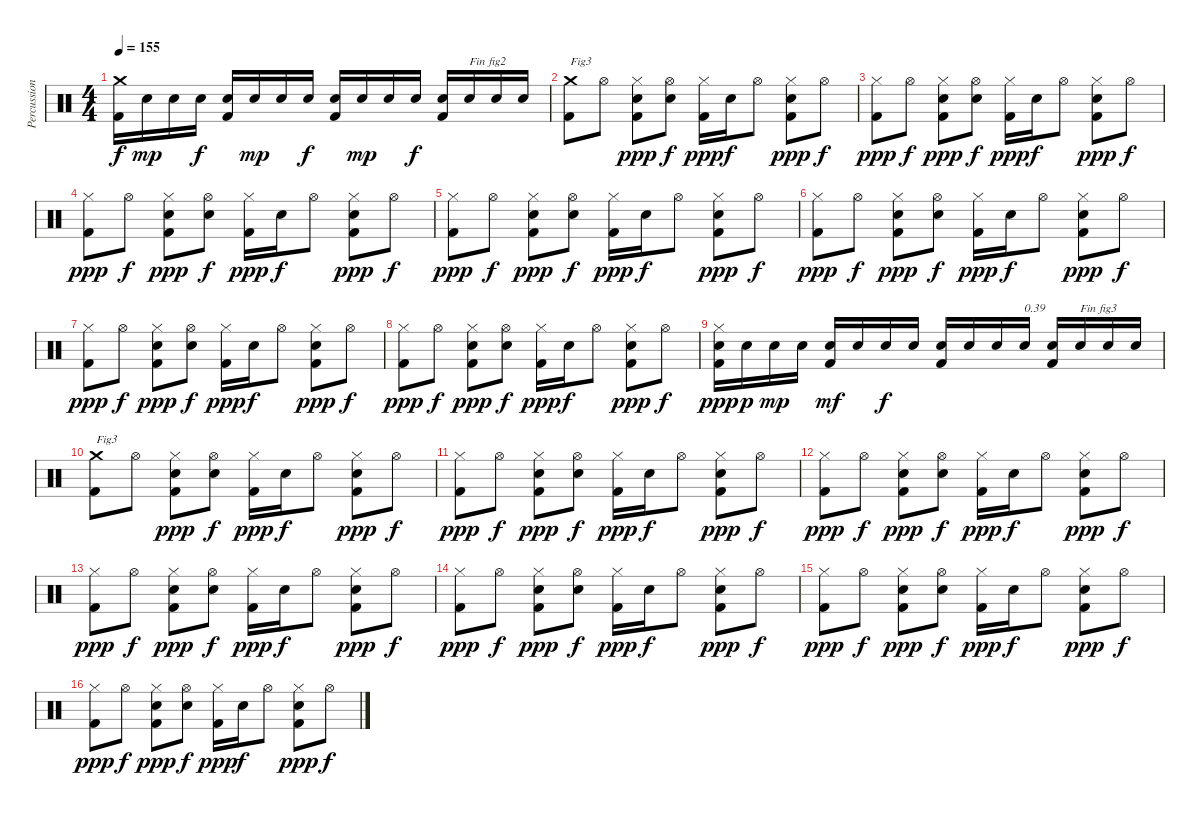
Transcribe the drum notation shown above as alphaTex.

\track ("Percussions" "Percussion") {instrument percussion}
\staff {score}
\articulation defaults
\ts (4 4)
\tempo 155
\clef neutral
\ks c
("Kick (hit) 2" "Crash medium (hit)").16{dy f} "Electric Snare (hit)".16{dy mp} "Electric Snare (hit)".16 "Electric Snare (hit)".16{dy f} ("Kick (hit) 2" "Electric Snare (hit)").16 "Electric Snare (hit)".16{dy mp} "Electric Snare (hit)".16 "Electric Snare (hit)".16{dy f} ("Kick (hit) 2" "Electric Snare (hit)").16 "Electric Snare (hit)".16{dy mp} "Electric Snare (hit)".16 "Electric Snare (hit)".16{dy f} ("Kick (hit) 2" "Electric Snare (hit)").16 "Electric Snare (hit)".16{txt "Fin fig2"} "Electric Snare (hit)".16 "Electric Snare (hit)".16 |
("Kick (hit) 2" "Crash medium (hit)").8{txt "Fig3"} "Hi-Hat (open)".8 ("Kick (hit) 2" "Electric Snare (hit)" "Hi-Hat (closed)").8{dy ppp} ("Electric Snare (hit)" "Hi-Hat (open)").8{dy f} ("Kick (hit) 2" "Hi-Hat (closed)").16{dy ppp} "Electric Snare (hit)".16{dy f} "Hi-Hat (open)".8 ("Kick (hit) 2" "Electric Snare (hit)" "Hi-Hat (closed)").8{dy ppp} "Hi-Hat (open)".8{dy f} |
("Kick (hit) 2" "Hi-Hat (closed)").8{dy ppp} "Hi-Hat (open)".8{dy f} ("Kick (hit) 2" "Electric Snare (hit)" "Hi-Hat (closed)").8{dy ppp} ("Electric Snare (hit)" "Hi-Hat (open)").8{dy f} ("Kick (hit) 2" "Hi-Hat (closed)").16{dy ppp} "Electric Snare (hit)".16{dy f} "Hi-Hat (open)".8 ("Kick (hit) 2" "Electric Snare (hit)" "Hi-Hat (closed)").8{dy ppp} "Hi-Hat (open)".8{dy f} |
("Kick (hit) 2" "Hi-Hat (closed)").8{dy ppp} "Hi-Hat (open)".8{dy f} ("Kick (hit) 2" "Electric Snare (hit)" "Hi-Hat (closed)").8{dy ppp} ("Electric Snare (hit)" "Hi-Hat (open)").8{dy f} ("Kick (hit) 2" "Hi-Hat (closed)").16{dy ppp} "Electric Snare (hit)".16{dy f} "Hi-Hat (open)".8 ("Kick (hit) 2" "Electric Snare (hit)" "Hi-Hat (closed)").8{dy ppp} "Hi-Hat (open)".8{dy f} |
("Kick (hit) 2" "Hi-Hat (closed)").8{dy ppp} "Hi-Hat (open)".8{dy f} ("Kick (hit) 2" "Electric Snare (hit)" "Hi-Hat (closed)").8{dy ppp} ("Electric Snare (hit)" "Hi-Hat (open)").8{dy f} ("Kick (hit) 2" "Hi-Hat (closed)").16{dy ppp} "Electric Snare (hit)".16{dy f} "Hi-Hat (open)".8 ("Kick (hit) 2" "Electric Snare (hit)" "Hi-Hat (closed)").8{dy ppp} "Hi-Hat (open)".8{dy f} |
("Kick (hit) 2" "Hi-Hat (closed)").8{dy ppp} "Hi-Hat (open)".8{dy f} ("Kick (hit) 2" "Electric Snare (hit)" "Hi-Hat (closed)").8{dy ppp} ("Electric Snare (hit)" "Hi-Hat (open)").8{dy f} ("Kick (hit) 2" "Hi-Hat (closed)").16{dy ppp} "Electric Snare (hit)".16{dy f} "Hi-Hat (open)".8 ("Kick (hit) 2" "Electric Snare (hit)" "Hi-Hat (closed)").8{dy ppp} "Hi-Hat (open)".8{dy f} |
("Kick (hit) 2" "Hi-Hat (closed)").8{dy ppp} "Hi-Hat (open)".8{dy f} ("Kick (hit) 2" "Electric Snare (hit)" "Hi-Hat (closed)").8{dy ppp} ("Electric Snare (hit)" "Hi-Hat (open)").8{dy f} ("Kick (hit) 2" "Hi-Hat (closed)").16{dy ppp} "Electric Snare (hit)".16{dy f} "Hi-Hat (open)".8 ("Kick (hit) 2" "Electric Snare (hit)" "Hi-Hat (closed)").8{dy ppp} "Hi-Hat (open)".8{dy f} |
("Kick (hit) 2" "Hi-Hat (closed)").8{dy ppp} "Hi-Hat (open)".8{dy f} ("Kick (hit) 2" "Electric Snare (hit)" "Hi-Hat (closed)").8{dy ppp} ("Electric Snare (hit)" "Hi-Hat (open)").8{dy f} ("Kick (hit) 2" "Hi-Hat (closed)").16{dy ppp} "Electric Snare (hit)".16{dy f} "Hi-Hat (open)".8 ("Kick (hit) 2" "Electric Snare (hit)" "Hi-Hat (closed)").8{dy ppp} "Hi-Hat (open)".8{dy f} |
("Kick (hit) 2" "Electric Snare (hit)" "Hi-Hat (closed)").16{dy ppp} "Electric Snare (hit)".16{dy p} "Electric Snare (hit)".16{dy mp} "Electric Snare (hit)".16 ("Kick (hit) 2" "Electric Snare (hit)").16{dy mf} "Electric Snare (hit)".16 "Electric Snare (hit)".16{dy f} "Electric Snare (hit)".16 ("Kick (hit) 2" "Electric Snare (hit)").16 "Electric Snare (hit)".16 "Electric Snare (hit)".16 "Electric Snare (hit)".16{txt "0.39"} ("Kick (hit) 2" "Electric Snare (hit)").16 "Electric Snare (hit)".16{txt "Fin fig3"} "Electric Snare (hit)".16 "Electric Snare (hit)".16 |
("Kick (hit) 2" "Crash medium (hit)").8{txt "Fig3"} "Hi-Hat (open)".8 ("Kick (hit) 2" "Electric Snare (hit)" "Hi-Hat (closed)").8{dy ppp} ("Electric Snare (hit)" "Hi-Hat (open)").8{dy f} ("Kick (hit) 2" "Hi-Hat (closed)").16{dy ppp} "Electric Snare (hit)".16{dy f} "Hi-Hat (open)".8 ("Kick (hit) 2" "Electric Snare (hit)" "Hi-Hat (closed)").8{dy ppp} "Hi-Hat (open)".8{dy f} |
("Kick (hit) 2" "Hi-Hat (closed)").8{dy ppp} "Hi-Hat (open)".8{dy f} ("Kick (hit) 2" "Electric Snare (hit)" "Hi-Hat (closed)").8{dy ppp} ("Electric Snare (hit)" "Hi-Hat (open)").8{dy f} ("Kick (hit) 2" "Hi-Hat (closed)").16{dy ppp} "Electric Snare (hit)".16{dy f} "Hi-Hat (open)".8 ("Kick (hit) 2" "Electric Snare (hit)" "Hi-Hat (closed)").8{dy ppp} "Hi-Hat (open)".8{dy f} |
("Kick (hit) 2" "Hi-Hat (closed)").8{dy ppp} "Hi-Hat (open)".8{dy f} ("Kick (hit) 2" "Electric Snare (hit)" "Hi-Hat (closed)").8{dy ppp} ("Electric Snare (hit)" "Hi-Hat (open)").8{dy f} ("Kick (hit) 2" "Hi-Hat (closed)").16{dy ppp} "Electric Snare (hit)".16{dy f} "Hi-Hat (open)".8 ("Kick (hit) 2" "Electric Snare (hit)" "Hi-Hat (closed)").8{dy ppp} "Hi-Hat (open)".8{dy f} |
("Kick (hit) 2" "Hi-Hat (closed)").8{dy ppp} "Hi-Hat (open)".8{dy f} ("Kick (hit) 2" "Electric Snare (hit)" "Hi-Hat (closed)").8{dy ppp} ("Electric Snare (hit)" "Hi-Hat (open)").8{dy f} ("Kick (hit) 2" "Hi-Hat (closed)").16{dy ppp} "Electric Snare (hit)".16{dy f} "Hi-Hat (open)".8 ("Kick (hit) 2" "Electric Snare (hit)" "Hi-Hat (closed)").8{dy ppp} "Hi-Hat (open)".8{dy f} |
("Kick (hit) 2" "Hi-Hat (closed)").8{dy ppp} "Hi-Hat (open)".8{dy f} ("Kick (hit) 2" "Electric Snare (hit)" "Hi-Hat (closed)").8{dy ppp} ("Electric Snare (hit)" "Hi-Hat (open)").8{dy f} ("Kick (hit) 2" "Hi-Hat (closed)").16{dy ppp} "Electric Snare (hit)".16{dy f} "Hi-Hat (open)".8 ("Kick (hit) 2" "Electric Snare (hit)" "Hi-Hat (closed)").8{dy ppp} "Hi-Hat (open)".8{dy f} |
("Kick (hit) 2" "Hi-Hat (closed)").8{dy ppp} "Hi-Hat (open)".8{dy f} ("Kick (hit) 2" "Electric Snare (hit)" "Hi-Hat (closed)").8{dy ppp} ("Electric Snare (hit)" "Hi-Hat (open)").8{dy f} ("Kick (hit) 2" "Hi-Hat (closed)").16{dy ppp} "Electric Snare (hit)".16{dy f} "Hi-Hat (open)".8 ("Kick (hit) 2" "Electric Snare (hit)" "Hi-Hat (closed)").8{dy ppp} "Hi-Hat (open)".8{dy f} |
("Kick (hit) 2" "Hi-Hat (closed)").8{dy ppp} "Hi-Hat (open)".8{dy f} ("Kick (hit) 2" "Electric Snare (hit)" "Hi-Hat (closed)").8{dy ppp} ("Electric Snare (hit)" "Hi-Hat (open)").8{dy f} ("Kick (hit) 2" "Hi-Hat (closed)").16{dy ppp} "Electric Snare (hit)".16{dy f} "Hi-Hat (open)".8 ("Kick (hit) 2" "Electric Snare (hit)" "Hi-Hat (closed)").8{dy ppp} "Hi-Hat (open)".8{dy f}
